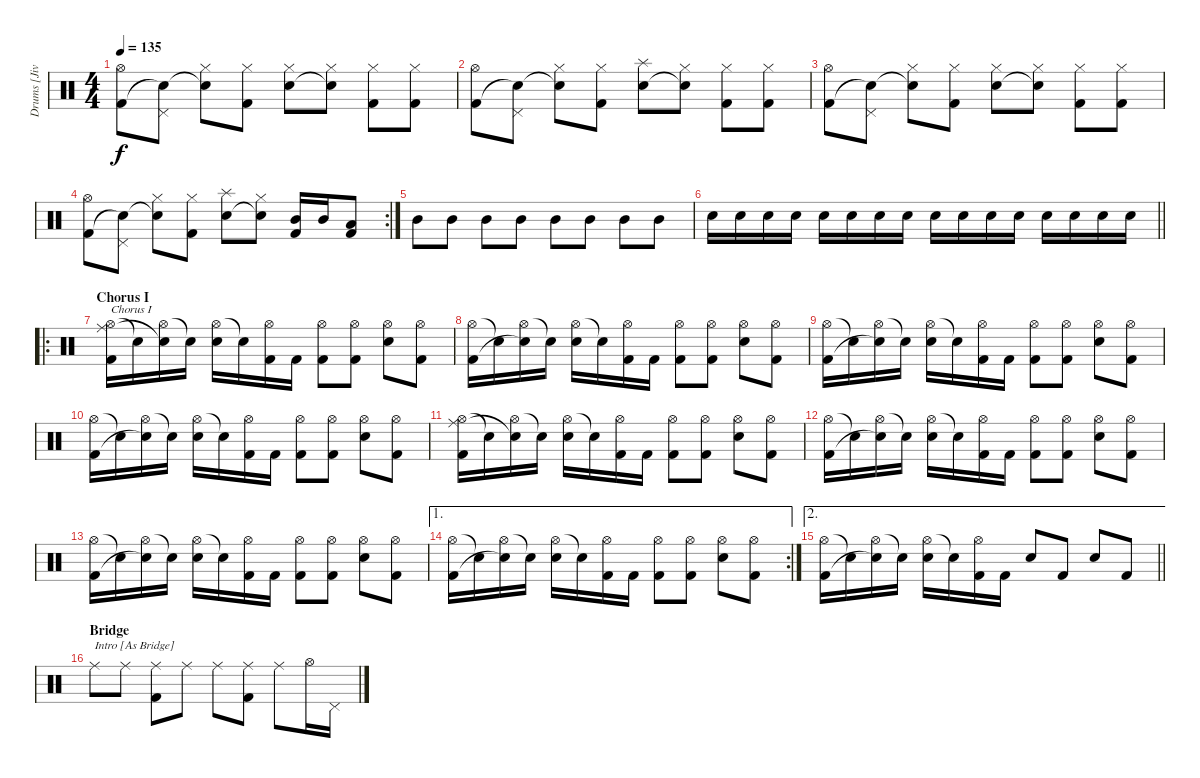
\track ("Drums [Jivarp]" "Drums [Jiv") {instrument percussion}
\staff {score}
\articulation defaults
\ts (4 4)
\tempo 135
\clef neutral
\ks c
("Hi-Hat (open)" "Kick (hit) 2").8{dy f} ("Pedal Hi-Hat (hit)" "Snare (hit)"{t}).8 ("Hi-Hat (closed)" "Snare (hit)"{t}).8 ("Hi-Hat (closed)" "Kick (hit) 2").8 ("Hi-Hat (closed)" "Electric Snare (hit)").8 ("Hi-Hat (closed)" "Snare (hit)"{t}).8 ("Hi-Hat (closed)" "Kick (hit) 2").8 ("Hi-Hat (closed)" "Kick (hit) 2").8 |
("Hi-Hat (open)" "Kick (hit) 2").8 ("Pedal Hi-Hat (hit)" "Snare (hit)"{t}).8 ("Hi-Hat (closed)" "Snare (hit)"{t}).8 ("Hi-Hat (closed)" "Kick (hit) 2").8 ("Splash (hit)" "Electric Snare (hit)").8 ("Hi-Hat (closed)" "Snare (hit)"{t}).8 ("Hi-Hat (closed)" "Kick (hit) 2").8 ("Hi-Hat (closed)" "Kick (hit) 2").8 |
("Hi-Hat (open)" "Kick (hit) 2").8 ("Pedal Hi-Hat (hit)" "Snare (hit)"{t}).8 ("Hi-Hat (closed)" "Snare (hit)"{t}).8 ("Hi-Hat (closed)" "Kick (hit) 2").8 ("Hi-Hat (closed)" "Electric Snare (hit)").8 ("Hi-Hat (closed)" "Snare (hit)"{t}).8 ("Hi-Hat (closed)" "Kick (hit) 2").8 ("Hi-Hat (closed)" "Kick (hit) 2").8 |
\rc 2
("Hi-Hat (open)" "Kick (hit) 2").8 ("Pedal Hi-Hat (hit)" "Snare (hit)"{t}).8 ("Hi-Hat (closed)" "Snare (hit)"{t}).8 ("Hi-Hat (closed)" "Kick (hit) 2").8 ("Splash (hit)" "Electric Snare (hit)").8 ("Hi-Hat (closed)" "Snare (hit)"{t}).8 ("Mid Tom (hit)" "Kick (hit) 2").16 "Mid Tom (hit)".16 ("Low Tom (hit)" "Kick (hit) 2").8 |
"Mid Tom (hit)".8 "Mid Tom (hit)".8 "Mid Tom (hit)".8 "Mid Tom (hit)".8 "Mid Tom (hit)".8 "Mid Tom (hit)".8 "Mid Tom (hit)".8 "Mid Tom (hit)".8 |
\barLineRight lightlight "Electric Snare (hit)".16 "Electric Snare (hit)".16 "Electric Snare (hit)".16 "Electric Snare (hit)".16 "Electric Snare (hit)".16 "Electric Snare (hit)".16 "Electric Snare (hit)".16 "Electric Snare (hit)".16 "Electric Snare (hit)".16 "Electric Snare (hit)".16 "Electric Snare (hit)".16 "Electric Snare (hit)".16 "Electric Snare (hit)".16 "Electric Snare (hit)".16 "Electric Snare (hit)".16 "Electric Snare (hit)".16
|
\ro
\section ("" "Chorus I")
("Hi-Hat (open)" "Ride (middle)" "Kick (hit) 2").16{txt "Chorus I"} "Snare (hit)"{t}.16 ("Hi-Hat (open)" "Snare (hit)"{t}).16 "Snare (hit)"{t}.16 ("Hi-Hat (open)" "Electric Snare (hit)").16 "Snare (hit)"{t}.16 ("Hi-Hat (open)" "Kick (hit) 2").16 "Kick (hit) 2".16 ("Hi-Hat (open)" "Kick (hit) 2").8 ("Hi-Hat (open)" "Kick (hit) 2").8 ("Hi-Hat (open)" "Electric Snare (hit)").8 ("Hi-Hat (open)" "Kick (hit) 2").8 |
("Hi-Hat (open)" "Kick (hit) 2").16 "Snare (hit)"{t}.16 ("Hi-Hat (open)" "Snare (hit)"{t}).16 "Snare (hit)"{t}.16 ("Hi-Hat (open)" "Electric Snare (hit)").16 "Snare (hit)"{t}.16 ("Hi-Hat (open)" "Kick (hit) 2").16 "Kick (hit) 2".16 ("Hi-Hat (open)" "Kick (hit) 2").8 ("Hi-Hat (open)" "Kick (hit) 2").8 ("Hi-Hat (open)" "Electric Snare (hit)").8 ("Hi-Hat (open)" "Kick (hit) 2").8 |
("Hi-Hat (open)" "Kick (hit) 2").16 "Snare (hit)"{t}.16 ("Hi-Hat (open)" "Snare (hit)"{t}).16 "Snare (hit)"{t}.16 ("Hi-Hat (open)" "Electric Snare (hit)").16 "Snare (hit)"{t}.16 ("Hi-Hat (open)" "Kick (hit) 2").16 "Kick (hit) 2".16 ("Hi-Hat (open)" "Kick (hit) 2").8 ("Hi-Hat (open)" "Kick (hit) 2").8 ("Hi-Hat (open)" "Electric Snare (hit)").8 ("Hi-Hat (open)" "Kick (hit) 2").8 |
("Hi-Hat (open)" "Kick (hit) 2").16 "Snare (hit)"{t}.16 ("Hi-Hat (open)" "Snare (hit)"{t}).16 "Snare (hit)"{t}.16 ("Hi-Hat (open)" "Electric Snare (hit)").16 "Snare (hit)"{t}.16 ("Hi-Hat (open)" "Kick (hit) 2").16 "Kick (hit) 2".16 ("Hi-Hat (open)" "Kick (hit) 2").8 ("Hi-Hat (open)" "Kick (hit) 2").8 ("Hi-Hat (open)" "Electric Snare (hit)").8 ("Hi-Hat (open)" "Kick (hit) 2").8 |
("Hi-Hat (open)" "Ride (middle)" "Kick (hit) 2").16 "Snare (hit)"{t}.16 ("Hi-Hat (open)" "Snare (hit)"{t}).16 "Snare (hit)"{t}.16 ("Hi-Hat (open)" "Electric Snare (hit)").16 "Snare (hit)"{t}.16 ("Hi-Hat (open)" "Kick (hit) 2").16 "Kick (hit) 2".16 ("Hi-Hat (open)" "Kick (hit) 2").8 ("Hi-Hat (open)" "Kick (hit) 2").8 ("Hi-Hat (open)" "Electric Snare (hit)").8 ("Hi-Hat (open)" "Kick (hit) 2").8 |
("Hi-Hat (open)" "Kick (hit) 2").16 "Snare (hit)"{t}.16 ("Hi-Hat (open)" "Snare (hit)"{t}).16 "Snare (hit)"{t}.16 ("Hi-Hat (open)" "Electric Snare (hit)").16 "Snare (hit)"{t}.16 ("Hi-Hat (open)" "Kick (hit) 2").16 "Kick (hit) 2".16 ("Hi-Hat (open)" "Kick (hit) 2").8 ("Hi-Hat (open)" "Kick (hit) 2").8 ("Hi-Hat (open)" "Electric Snare (hit)").8 ("Hi-Hat (open)" "Kick (hit) 2").8 |
("Hi-Hat (open)" "Kick (hit) 2").16 "Snare (hit)"{t}.16 ("Hi-Hat (open)" "Snare (hit)"{t}).16 "Snare (hit)"{t}.16 ("Hi-Hat (open)" "Electric Snare (hit)").16 "Snare (hit)"{t}.16 ("Hi-Hat (open)" "Kick (hit) 2").16 "Kick (hit) 2".16 ("Hi-Hat (open)" "Kick (hit) 2").8 ("Hi-Hat (open)" "Kick (hit) 2").8 ("Hi-Hat (open)" "Electric Snare (hit)").8 ("Hi-Hat (open)" "Kick (hit) 2").8 |
\ae 1
\rc 2
("Hi-Hat (open)" "Kick (hit) 2").16 "Snare (hit)"{t}.16 ("Hi-Hat (open)" "Snare (hit)"{t}).16 "Snare (hit)"{t}.16 ("Hi-Hat (open)" "Electric Snare (hit)").16 "Snare (hit)"{t}.16 ("Hi-Hat (open)" "Kick (hit) 2").16 "Kick (hit) 2".16 ("Hi-Hat (open)" "Kick (hit) 2").8 ("Hi-Hat (open)" "Kick (hit) 2").8 ("Hi-Hat (open)" "Electric Snare (hit)").8 ("Hi-Hat (open)" "Kick (hit) 2").8 |
\ae 2
\barLineRight lightlight
("Hi-Hat (open)" "Kick (hit) 2").16 "Snare (hit)"{t}.16 ("Hi-Hat (open)" "Snare (hit)"{t}).16 "Snare (hit)"{t}.16 ("Hi-Hat (open)" "Electric Snare (hit)").16 "Snare (hit)"{t}.16 ("Hi-Hat (open)" "Kick (hit) 2").16 "Kick (hit) 2".16 "Electric Snare (hit)".8 "Kick (hit) 2".8 "Electric Snare (hit)".8 "Kick (hit) 2".8 |
\section ("" "Bridge")
"Ride (middle)".8{txt "Intro [As Bridge]"} "Ride (middle)".8 ("Ride (middle)" "Kick (hit) 2").8 "Ride (middle)".8 "Ride (middle)".8 ("Ride (middle)" "Kick (hit) 2").8 "Ride (middle)".8 "Hi-Hat (open)".16 "Pedal Hi-Hat (hit)".16
